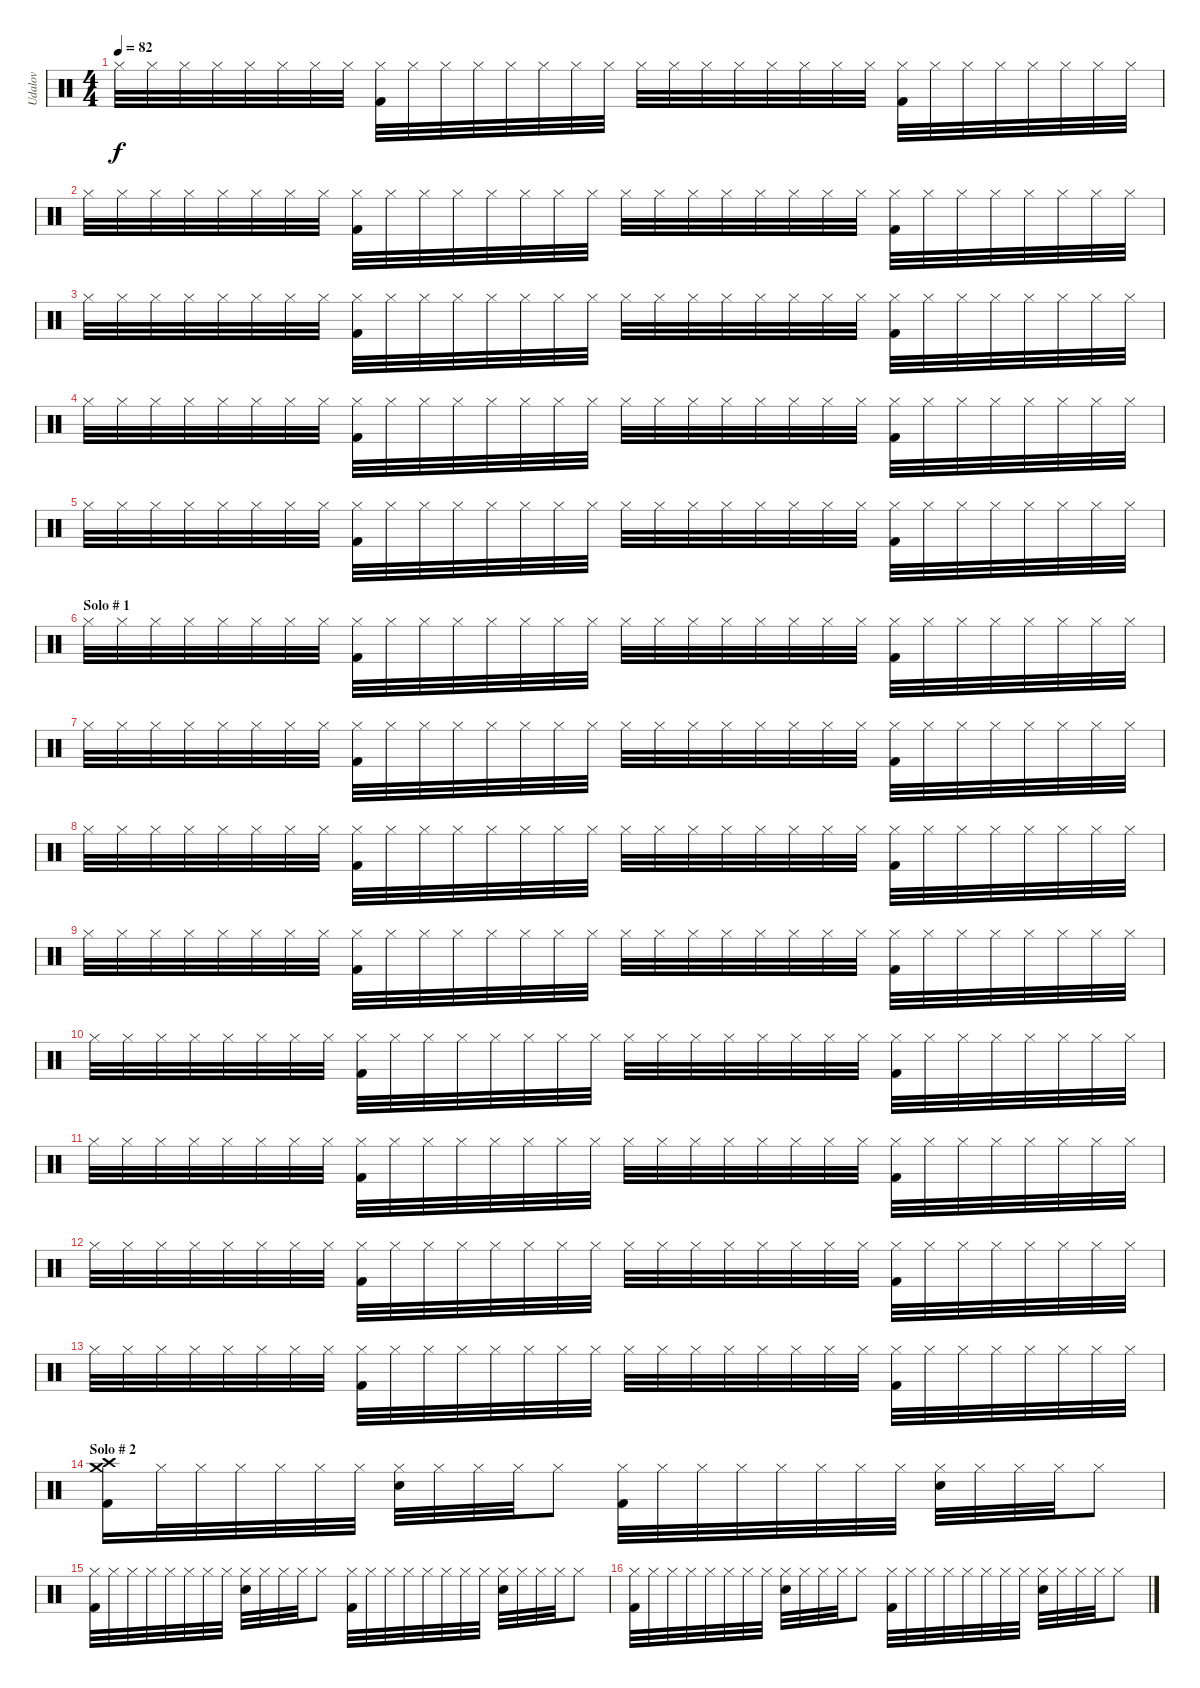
\track ("Udalov" "Udalov") {instrument percussion}
\staff {score}
\articulation defaults
\ts (4 4)
\tempo 82
\clef neutral
\ks c "Hi-Hat (closed)".32{dy f} "Hi-Hat (closed)".32 "Hi-Hat (closed)".32 "Hi-Hat (closed)".32 "Hi-Hat (closed)".32 "Hi-Hat (closed)".32 "Hi-Hat (closed)".32 "Hi-Hat (closed)".32
("Hi-Hat (closed)" "Kick (hit) 2").32 "Hi-Hat (closed)".32 "Hi-Hat (closed)".32 "Hi-Hat (closed)".32 "Hi-Hat (closed)".32 "Hi-Hat (closed)".32 "Hi-Hat (closed)".32 "Hi-Hat (closed)".32 "Hi-Hat (closed)".32 "Hi-Hat (closed)".32 "Hi-Hat (closed)".32 "Hi-Hat (closed)".32 "Hi-Hat (closed)".32 "Hi-Hat (closed)".32 "Hi-Hat (closed)".32 "Hi-Hat (closed)".32 ("Hi-Hat (closed)" "Kick (hit) 2").32 "Hi-Hat (closed)".32 "Hi-Hat (closed)".32 "Hi-Hat (closed)".32 "Hi-Hat (closed)".32 "Hi-Hat (closed)".32 "Hi-Hat (closed)".32 "Hi-Hat (closed)".32 |
"Hi-Hat (closed)".32 "Hi-Hat (closed)".32 "Hi-Hat (closed)".32 "Hi-Hat (closed)".32 "Hi-Hat (closed)".32 "Hi-Hat (closed)".32 "Hi-Hat (closed)".32 "Hi-Hat (closed)".32 ("Hi-Hat (closed)" "Kick (hit) 2").32 "Hi-Hat (closed)".32 "Hi-Hat (closed)".32 "Hi-Hat (closed)".32 "Hi-Hat (closed)".32 "Hi-Hat (closed)".32 "Hi-Hat (closed)".32 "Hi-Hat (closed)".32 "Hi-Hat (closed)".32 "Hi-Hat (closed)".32 "Hi-Hat (closed)".32 "Hi-Hat (closed)".32 "Hi-Hat (closed)".32 "Hi-Hat (closed)".32 "Hi-Hat (closed)".32 "Hi-Hat (closed)".32 ("Hi-Hat (closed)" "Kick (hit) 2").32 "Hi-Hat (closed)".32 "Hi-Hat (closed)".32 "Hi-Hat (closed)".32 "Hi-Hat (closed)".32 "Hi-Hat (closed)".32 "Hi-Hat (closed)".32 "Hi-Hat (closed)".32 |
"Hi-Hat (closed)".32 "Hi-Hat (closed)".32 "Hi-Hat (closed)".32 "Hi-Hat (closed)".32 "Hi-Hat (closed)".32 "Hi-Hat (closed)".32 "Hi-Hat (closed)".32 "Hi-Hat (closed)".32 ("Hi-Hat (closed)" "Kick (hit) 2").32 "Hi-Hat (closed)".32 "Hi-Hat (closed)".32 "Hi-Hat (closed)".32 "Hi-Hat (closed)".32 "Hi-Hat (closed)".32 "Hi-Hat (closed)".32 "Hi-Hat (closed)".32 "Hi-Hat (closed)".32 "Hi-Hat (closed)".32 "Hi-Hat (closed)".32 "Hi-Hat (closed)".32 "Hi-Hat (closed)".32 "Hi-Hat (closed)".32 "Hi-Hat (closed)".32 "Hi-Hat (closed)".32 ("Hi-Hat (closed)" "Kick (hit) 2").32 "Hi-Hat (closed)".32 "Hi-Hat (closed)".32 "Hi-Hat (closed)".32 "Hi-Hat (closed)".32 "Hi-Hat (closed)".32 "Hi-Hat (closed)".32 "Hi-Hat (closed)".32 |
"Hi-Hat (closed)".32 "Hi-Hat (closed)".32 "Hi-Hat (closed)".32 "Hi-Hat (closed)".32 "Hi-Hat (closed)".32 "Hi-Hat (closed)".32 "Hi-Hat (closed)".32 "Hi-Hat (closed)".32 ("Hi-Hat (closed)" "Kick (hit) 2").32 "Hi-Hat (closed)".32 "Hi-Hat (closed)".32 "Hi-Hat (closed)".32 "Hi-Hat (closed)".32 "Hi-Hat (closed)".32 "Hi-Hat (closed)".32 "Hi-Hat (closed)".32 "Hi-Hat (closed)".32 "Hi-Hat (closed)".32 "Hi-Hat (closed)".32 "Hi-Hat (closed)".32 "Hi-Hat (closed)".32 "Hi-Hat (closed)".32 "Hi-Hat (closed)".32 "Hi-Hat (closed)".32 ("Hi-Hat (closed)" "Kick (hit) 2").32 "Hi-Hat (closed)".32 "Hi-Hat (closed)".32 "Hi-Hat (closed)".32 "Hi-Hat (closed)".32 "Hi-Hat (closed)".32 "Hi-Hat (closed)".32 "Hi-Hat (closed)".32 |
"Hi-Hat (closed)".32 "Hi-Hat (closed)".32 "Hi-Hat (closed)".32 "Hi-Hat (closed)".32 "Hi-Hat (closed)".32 "Hi-Hat (closed)".32 "Hi-Hat (closed)".32 "Hi-Hat (closed)".32 ("Hi-Hat (closed)" "Kick (hit) 2").32 "Hi-Hat (closed)".32 "Hi-Hat (closed)".32 "Hi-Hat (closed)".32 "Hi-Hat (closed)".32 "Hi-Hat (closed)".32 "Hi-Hat (closed)".32 "Hi-Hat (closed)".32 "Hi-Hat (closed)".32 "Hi-Hat (closed)".32 "Hi-Hat (closed)".32 "Hi-Hat (closed)".32 "Hi-Hat (closed)".32 "Hi-Hat (closed)".32 "Hi-Hat (closed)".32 "Hi-Hat (closed)".32 ("Hi-Hat (closed)" "Kick (hit) 2").32 "Hi-Hat (closed)".32 "Hi-Hat (closed)".32 "Hi-Hat (closed)".32 "Hi-Hat (closed)".32 "Hi-Hat (closed)".32 "Hi-Hat (closed)".32 "Hi-Hat (closed)".32 |
\section ("" "Solo # 1")
"Hi-Hat (closed)".32 "Hi-Hat (closed)".32 "Hi-Hat (closed)".32 "Hi-Hat (closed)".32 "Hi-Hat (closed)".32 "Hi-Hat (closed)".32 "Hi-Hat (closed)".32 "Hi-Hat (closed)".32 ("Hi-Hat (closed)" "Kick (hit) 2").32 "Hi-Hat (closed)".32 "Hi-Hat (closed)".32 "Hi-Hat (closed)".32 "Hi-Hat (closed)".32 "Hi-Hat (closed)".32 "Hi-Hat (closed)".32 "Hi-Hat (closed)".32 "Hi-Hat (closed)".32 "Hi-Hat (closed)".32 "Hi-Hat (closed)".32 "Hi-Hat (closed)".32 "Hi-Hat (closed)".32 "Hi-Hat (closed)".32 "Hi-Hat (closed)".32 "Hi-Hat (closed)".32 ("Hi-Hat (closed)" "Kick (hit) 2").32 "Hi-Hat (closed)".32 "Hi-Hat (closed)".32 "Hi-Hat (closed)".32 "Hi-Hat (closed)".32 "Hi-Hat (closed)".32 "Hi-Hat (closed)".32 "Hi-Hat (closed)".32 |
"Hi-Hat (closed)".32 "Hi-Hat (closed)".32 "Hi-Hat (closed)".32 "Hi-Hat (closed)".32 "Hi-Hat (closed)".32 "Hi-Hat (closed)".32 "Hi-Hat (closed)".32 "Hi-Hat (closed)".32 ("Hi-Hat (closed)" "Kick (hit) 2").32 "Hi-Hat (closed)".32 "Hi-Hat (closed)".32 "Hi-Hat (closed)".32 "Hi-Hat (closed)".32 "Hi-Hat (closed)".32 "Hi-Hat (closed)".32 "Hi-Hat (closed)".32 "Hi-Hat (closed)".32 "Hi-Hat (closed)".32 "Hi-Hat (closed)".32 "Hi-Hat (closed)".32 "Hi-Hat (closed)".32 "Hi-Hat (closed)".32 "Hi-Hat (closed)".32 "Hi-Hat (closed)".32 ("Hi-Hat (closed)" "Kick (hit) 2").32 "Hi-Hat (closed)".32 "Hi-Hat (closed)".32 "Hi-Hat (closed)".32 "Hi-Hat (closed)".32 "Hi-Hat (closed)".32 "Hi-Hat (closed)".32 "Hi-Hat (closed)".32 |
"Hi-Hat (closed)".32 "Hi-Hat (closed)".32 "Hi-Hat (closed)".32 "Hi-Hat (closed)".32 "Hi-Hat (closed)".32 "Hi-Hat (closed)".32 "Hi-Hat (closed)".32 "Hi-Hat (closed)".32 ("Hi-Hat (closed)" "Kick (hit) 2").32 "Hi-Hat (closed)".32 "Hi-Hat (closed)".32 "Hi-Hat (closed)".32 "Hi-Hat (closed)".32 "Hi-Hat (closed)".32 "Hi-Hat (closed)".32 "Hi-Hat (closed)".32 "Hi-Hat (closed)".32 "Hi-Hat (closed)".32 "Hi-Hat (closed)".32 "Hi-Hat (closed)".32 "Hi-Hat (closed)".32 "Hi-Hat (closed)".32 "Hi-Hat (closed)".32 "Hi-Hat (closed)".32 ("Hi-Hat (closed)" "Kick (hit) 2").32 "Hi-Hat (closed)".32 "Hi-Hat (closed)".32 "Hi-Hat (closed)".32 "Hi-Hat (closed)".32 "Hi-Hat (closed)".32 "Hi-Hat (closed)".32 "Hi-Hat (closed)".32 |
"Hi-Hat (closed)".32 "Hi-Hat (closed)".32 "Hi-Hat (closed)".32 "Hi-Hat (closed)".32 "Hi-Hat (closed)".32 "Hi-Hat (closed)".32 "Hi-Hat (closed)".32 "Hi-Hat (closed)".32 ("Hi-Hat (closed)" "Kick (hit) 2").32 "Hi-Hat (closed)".32 "Hi-Hat (closed)".32 "Hi-Hat (closed)".32 "Hi-Hat (closed)".32 "Hi-Hat (closed)".32 "Hi-Hat (closed)".32 "Hi-Hat (closed)".32 "Hi-Hat (closed)".32 "Hi-Hat (closed)".32 "Hi-Hat (closed)".32 "Hi-Hat (closed)".32 "Hi-Hat (closed)".32 "Hi-Hat (closed)".32 "Hi-Hat (closed)".32 "Hi-Hat (closed)".32 ("Hi-Hat (closed)" "Kick (hit) 2").32 "Hi-Hat (closed)".32 "Hi-Hat (closed)".32 "Hi-Hat (closed)".32 "Hi-Hat (closed)".32 "Hi-Hat (closed)".32 "Hi-Hat (closed)".32 "Hi-Hat (closed)".32 |
"Hi-Hat (closed)".32 "Hi-Hat (closed)".32 "Hi-Hat (closed)".32 "Hi-Hat (closed)".32 "Hi-Hat (closed)".32 "Hi-Hat (closed)".32 "Hi-Hat (closed)".32 "Hi-Hat (closed)".32 ("Hi-Hat (closed)" "Kick (hit) 2").32 "Hi-Hat (closed)".32 "Hi-Hat (closed)".32 "Hi-Hat (closed)".32 "Hi-Hat (closed)".32 "Hi-Hat (closed)".32 "Hi-Hat (closed)".32 "Hi-Hat (closed)".32 "Hi-Hat (closed)".32 "Hi-Hat (closed)".32 "Hi-Hat (closed)".32 "Hi-Hat (closed)".32 "Hi-Hat (closed)".32 "Hi-Hat (closed)".32 "Hi-Hat (closed)".32 "Hi-Hat (closed)".32 ("Hi-Hat (closed)" "Kick (hit) 2").32 "Hi-Hat (closed)".32 "Hi-Hat (closed)".32 "Hi-Hat (closed)".32 "Hi-Hat (closed)".32 "Hi-Hat (closed)".32 "Hi-Hat (closed)".32 "Hi-Hat (closed)".32 |
"Hi-Hat (closed)".32 "Hi-Hat (closed)".32 "Hi-Hat (closed)".32 "Hi-Hat (closed)".32 "Hi-Hat (closed)".32 "Hi-Hat (closed)".32 "Hi-Hat (closed)".32 "Hi-Hat (closed)".32 ("Hi-Hat (closed)" "Kick (hit) 2").32 "Hi-Hat (closed)".32 "Hi-Hat (closed)".32 "Hi-Hat (closed)".32 "Hi-Hat (closed)".32 "Hi-Hat (closed)".32 "Hi-Hat (closed)".32 "Hi-Hat (closed)".32 "Hi-Hat (closed)".32 "Hi-Hat (closed)".32 "Hi-Hat (closed)".32 "Hi-Hat (closed)".32 "Hi-Hat (closed)".32 "Hi-Hat (closed)".32 "Hi-Hat (closed)".32 "Hi-Hat (closed)".32 ("Hi-Hat (closed)" "Kick (hit) 2").32 "Hi-Hat (closed)".32 "Hi-Hat (closed)".32 "Hi-Hat (closed)".32 "Hi-Hat (closed)".32 "Hi-Hat (closed)".32 "Hi-Hat (closed)".32 "Hi-Hat (closed)".32 |
"Hi-Hat (closed)".32 "Hi-Hat (closed)".32 "Hi-Hat (closed)".32 "Hi-Hat (closed)".32 "Hi-Hat (closed)".32 "Hi-Hat (closed)".32 "Hi-Hat (closed)".32 "Hi-Hat (closed)".32 ("Hi-Hat (closed)" "Kick (hit) 2").32 "Hi-Hat (closed)".32 "Hi-Hat (closed)".32 "Hi-Hat (closed)".32 "Hi-Hat (closed)".32 "Hi-Hat (closed)".32 "Hi-Hat (closed)".32 "Hi-Hat (closed)".32 "Hi-Hat (closed)".32 "Hi-Hat (closed)".32 "Hi-Hat (closed)".32 "Hi-Hat (closed)".32 "Hi-Hat (closed)".32 "Hi-Hat (closed)".32 "Hi-Hat (closed)".32 "Hi-Hat (closed)".32 ("Hi-Hat (closed)" "Kick (hit) 2").32 "Hi-Hat (closed)".32 "Hi-Hat (closed)".32 "Hi-Hat (closed)".32 "Hi-Hat (closed)".32 "Hi-Hat (closed)".32 "Hi-Hat (closed)".32 "Hi-Hat (closed)".32 |
"Hi-Hat (closed)".32 "Hi-Hat (closed)".32 "Hi-Hat (closed)".32 "Hi-Hat (closed)".32 "Hi-Hat (closed)".32 "Hi-Hat (closed)".32 "Hi-Hat (closed)".32 "Hi-Hat (closed)".32 ("Hi-Hat (closed)" "Kick (hit) 2").32 "Hi-Hat (closed)".32 "Hi-Hat (closed)".32 "Hi-Hat (closed)".32 "Hi-Hat (closed)".32 "Hi-Hat (closed)".32 "Hi-Hat (closed)".32 "Hi-Hat (closed)".32 "Hi-Hat (closed)".32 "Hi-Hat (closed)".32 "Hi-Hat (closed)".32 "Hi-Hat (closed)".32 "Hi-Hat (closed)".32 "Hi-Hat (closed)".32 "Hi-Hat (closed)".32 "Hi-Hat (closed)".32 ("Hi-Hat (closed)" "Kick (hit) 2").32 "Hi-Hat (closed)".32 "Hi-Hat (closed)".32 "Hi-Hat (closed)".32 "Hi-Hat (closed)".32 "Hi-Hat (closed)".32 "Hi-Hat (closed)".32 "Hi-Hat (closed)".32 |
\section ("" "Solo # 2")
("Crash high (hit)" "Crash medium (hit)" "Kick (hit) 2").16 "Hi-Hat (closed)".32 "Hi-Hat (closed)".32 "Hi-Hat (closed)".32 "Hi-Hat (closed)".32 "Hi-Hat (closed)".32 "Hi-Hat (closed)".32 ("Hi-Hat (closed)" "Snare (hit) 2").32 "Hi-Hat (closed)".32 "Hi-Hat (closed)".32 "Hi-Hat (closed)".32 "Hi-Hat (closed)".8 ("Hi-Hat (closed)" "Kick (hit) 2").32 "Hi-Hat (closed)".32 "Hi-Hat (closed)".32 "Hi-Hat (closed)".32 "Hi-Hat (closed)".32 "Hi-Hat (closed)".32 "Hi-Hat (closed)".32 "Hi-Hat (closed)".32 ("Hi-Hat (closed)" "Snare (hit) 2").32 "Hi-Hat (closed)".32 "Hi-Hat (closed)".32 "Hi-Hat (closed)".32 "Hi-Hat (closed)".8 |
("Hi-Hat (closed)" "Kick (hit) 2").32 "Hi-Hat (closed)".32 "Hi-Hat (closed)".32 "Hi-Hat (closed)".32 "Hi-Hat (closed)".32 "Hi-Hat (closed)".32 "Hi-Hat (closed)".32 "Hi-Hat (closed)".32 ("Hi-Hat (closed)" "Snare (hit) 2").32 "Hi-Hat (closed)".32 "Hi-Hat (closed)".32 "Hi-Hat (closed)".32 "Hi-Hat (closed)".8 ("Hi-Hat (closed)" "Kick (hit) 2").32 "Hi-Hat (closed)".32 "Hi-Hat (closed)".32 "Hi-Hat (closed)".32 "Hi-Hat (closed)".32 "Hi-Hat (closed)".32 "Hi-Hat (closed)".32 "Hi-Hat (closed)".32 ("Hi-Hat (closed)" "Snare (hit) 2").32 "Hi-Hat (closed)".32 "Hi-Hat (closed)".32 "Hi-Hat (closed)".32 "Hi-Hat (closed)".8 |
("Hi-Hat (closed)" "Kick (hit) 2").32 "Hi-Hat (closed)".32 "Hi-Hat (closed)".32 "Hi-Hat (closed)".32 "Hi-Hat (closed)".32 "Hi-Hat (closed)".32 "Hi-Hat (closed)".32 "Hi-Hat (closed)".32 ("Hi-Hat (closed)" "Snare (hit) 2").32 "Hi-Hat (closed)".32 "Hi-Hat (closed)".32 "Hi-Hat (closed)".32 "Hi-Hat (closed)".8 ("Hi-Hat (closed)" "Kick (hit) 2").32 "Hi-Hat (closed)".32 "Hi-Hat (closed)".32 "Hi-Hat (closed)".32 "Hi-Hat (closed)".32 "Hi-Hat (closed)".32 "Hi-Hat (closed)".32 "Hi-Hat (closed)".32 ("Hi-Hat (closed)" "Snare (hit) 2").32 "Hi-Hat (closed)".32 "Hi-Hat (closed)".32 "Hi-Hat (closed)".32 "Hi-Hat (closed)".8
